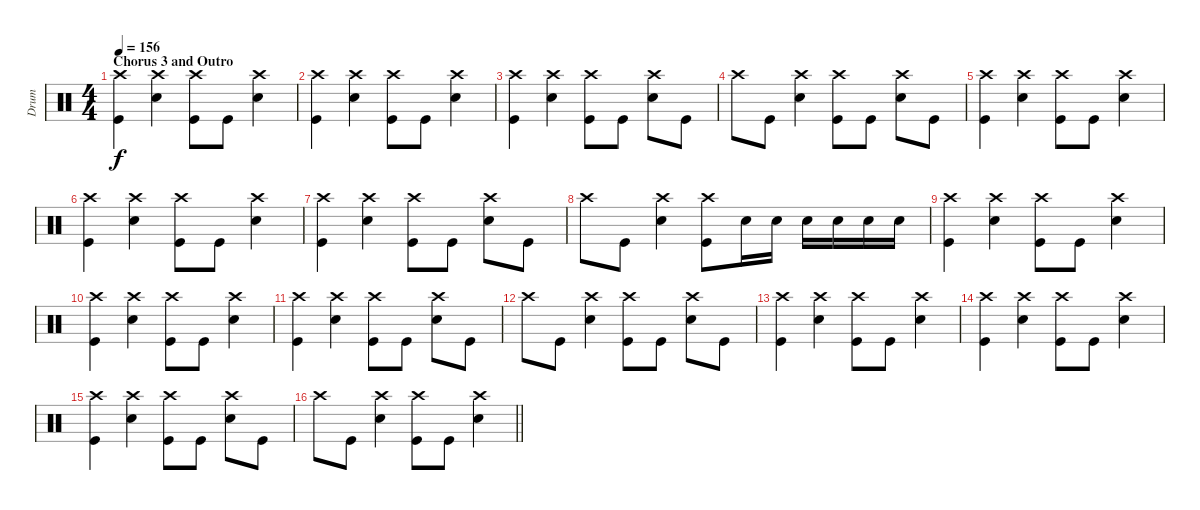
\track ("Drum" "Drum") {instrument percussion}
\staff {score}
\articulation defaults
\ts (4 4)
\section ("" "Chorus 3 and Outro")
\tempo 156
\clef neutral
\ks c
("Crash high (hit)" "Kick (hit)").4{dy f} ("Crash high (hit)" "Snare (hit) 2").4 ("Crash high (hit)" "Kick (hit)").8 "Kick (hit)".8 ("Crash high (hit)" "Snare (hit) 2").4 |
("Crash high (hit)" "Kick (hit)").4 ("Crash high (hit)" "Snare (hit) 2").4 ("Crash high (hit)" "Kick (hit)").8 "Kick (hit)".8 ("Crash high (hit)" "Snare (hit) 2").4 |
("Crash high (hit)" "Kick (hit)").4 ("Crash high (hit)" "Snare (hit) 2").4 ("Crash high (hit)" "Kick (hit)").8 "Kick (hit)".8 ("Crash high (hit)" "Snare (hit) 2").8 "Kick (hit)".8 |
"Crash high (hit)".8 "Kick (hit)".8 ("Crash high (hit)" "Snare (hit) 2").4 ("Crash high (hit)" "Kick (hit)").8 "Kick (hit)".8 ("Crash high (hit)" "Snare (hit) 2").8 "Kick (hit)".8 |
("Crash high (hit)" "Kick (hit)").4 ("Crash high (hit)" "Snare (hit) 2").4 ("Crash high (hit)" "Kick (hit)").8 "Kick (hit)".8 ("Crash high (hit)" "Snare (hit) 2").4 |
("Crash high (hit)" "Kick (hit)").4 ("Crash high (hit)" "Snare (hit) 2").4 ("Crash high (hit)" "Kick (hit)").8 "Kick (hit)".8 ("Crash high (hit)" "Snare (hit) 2").4 |
("Crash high (hit)" "Kick (hit)").4 ("Crash high (hit)" "Snare (hit) 2").4 ("Crash high (hit)" "Kick (hit)").8 "Kick (hit)".8 ("Crash high (hit)" "Snare (hit) 2").8 "Kick (hit)".8 |
"Crash high (hit)".8 "Kick (hit)".8 ("Crash high (hit)" "Snare (hit) 2").4 ("Crash high (hit)" "Kick (hit)").8 "Snare (hit) 2".16 "Snare (hit) 2".16 "Snare (hit) 2".16 "Snare (hit) 2".16 "Snare (hit) 2".16 "Snare (hit) 2".16 |
("Crash high (hit)" "Kick (hit)").4 ("Crash high (hit)" "Snare (hit) 2").4 ("Crash high (hit)" "Kick (hit)").8 "Kick (hit)".8 ("Crash high (hit)" "Snare (hit) 2").4 |
("Crash high (hit)" "Kick (hit)").4 ("Crash high (hit)" "Snare (hit) 2").4 ("Crash high (hit)" "Kick (hit)").8 "Kick (hit)".8 ("Crash high (hit)" "Snare (hit) 2").4 |
("Crash high (hit)" "Kick (hit)").4 ("Crash high (hit)" "Snare (hit) 2").4 ("Crash high (hit)" "Kick (hit)").8 "Kick (hit)".8 ("Crash high (hit)" "Snare (hit) 2").8 "Kick (hit)".8 |
"Crash high (hit)".8 "Kick (hit)".8 ("Crash high (hit)" "Snare (hit) 2").4 ("Crash high (hit)" "Kick (hit)").8 "Kick (hit)".8 ("Crash high (hit)" "Snare (hit) 2").8 "Kick (hit)".8 |
("Crash high (hit)" "Kick (hit)").4 ("Crash high (hit)" "Snare (hit) 2").4 ("Crash high (hit)" "Kick (hit)").8 "Kick (hit)".8 ("Crash high (hit)" "Snare (hit) 2").4 |
("Crash high (hit)" "Kick (hit)").4 ("Crash high (hit)" "Snare (hit) 2").4 ("Crash high (hit)" "Kick (hit)").8 "Kick (hit)".8 ("Crash high (hit)" "Snare (hit) 2").4 |
("Crash high (hit)" "Kick (hit)").4 ("Crash high (hit)" "Snare (hit) 2").4 ("Crash high (hit)" "Kick (hit)").8 "Kick (hit)".8 ("Crash high (hit)" "Snare (hit) 2").8 "Kick (hit)".8 |
\barLineRight lightlight "Crash high (hit)".8 "Kick (hit)".8
("Crash high (hit)" "Snare (hit) 2").4 ("Crash high (hit)" "Kick (hit)").8 "Kick (hit)".8 ("Crash high (hit)" "Snare (hit) 2").4
